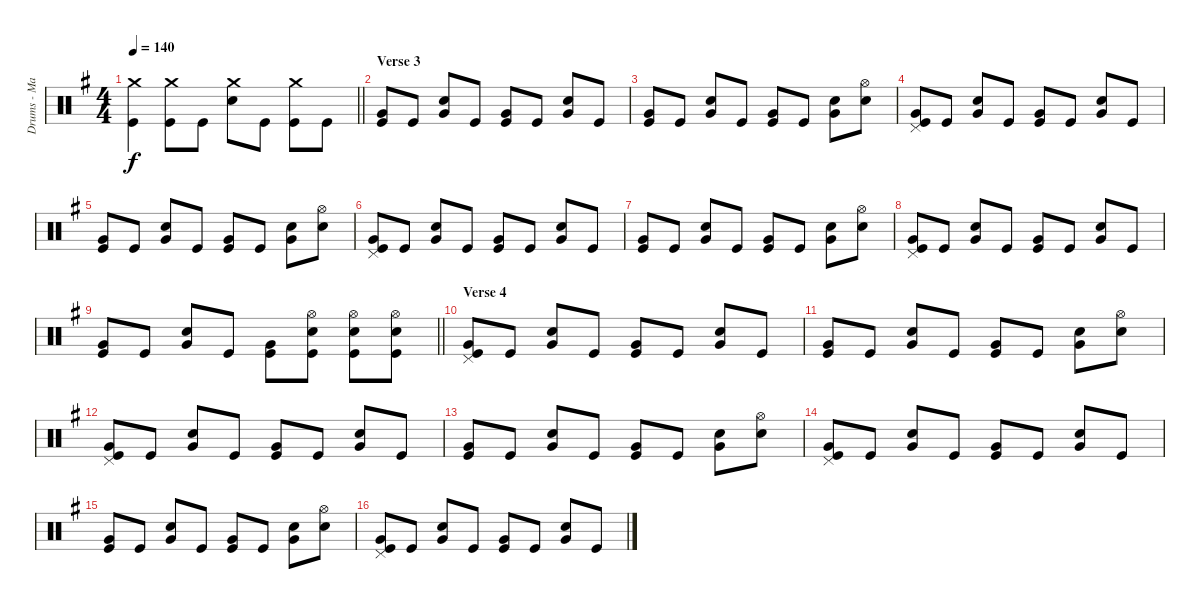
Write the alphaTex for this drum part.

\track ("Drums - Mark O'Connell" "Drums - Ma") {instrument percussion}
\staff {score}
\articulation defaults
\ts (4 4)
\tempo 140
\clef neutral
\barLineRight lightlight
\ks g
("Crash medium (hit)" "Kick (hit)").4{dy f} ("Crash medium (hit)" "Kick (hit)").8 "Kick (hit)".8 ("Crash medium (hit)" "Snare (hit) 2").8 "Kick (hit)".8 ("Crash medium (hit)" "Kick (hit)").8 "Kick (hit)".8 |
\section ("" "Verse 3")
("Very Low Tom (hit)" "Kick (hit)").8 "Kick (hit)".8 ("Very Low Tom (hit)" "Snare (hit) 2").8 "Kick (hit)".8 ("Very Low Tom (hit)" "Kick (hit)").8 "Kick (hit)".8 ("Very Low Tom (hit)" "Snare (hit) 2").8 "Kick (hit)".8 |
("Very Low Tom (hit)" "Kick (hit)").8 "Kick (hit)".8 ("Very Low Tom (hit)" "Snare (hit) 2").8 "Kick (hit)".8 ("Very Low Tom (hit)" "Kick (hit)").8 "Kick (hit)".8 ("Very Low Tom (hit)" "Snare (hit) 2").8 ("Hi-Hat (open)" "Snare (hit) 2").8 |
("Very Low Tom (hit)" "Pedal Hi-Hat (hit)" "Kick (hit)").8 "Kick (hit)".8 ("Very Low Tom (hit)" "Snare (hit) 2").8 "Kick (hit)".8 ("Very Low Tom (hit)" "Kick (hit)").8 "Kick (hit)".8 ("Very Low Tom (hit)" "Snare (hit) 2").8 "Kick (hit)".8 |
("Very Low Tom (hit)" "Kick (hit)").8 "Kick (hit)".8 ("Very Low Tom (hit)" "Snare (hit) 2").8 "Kick (hit)".8 ("Very Low Tom (hit)" "Kick (hit)").8 "Kick (hit)".8 ("Very Low Tom (hit)" "Snare (hit) 2").8 ("Hi-Hat (open)" "Snare (hit) 2").8 |
("Very Low Tom (hit)" "Pedal Hi-Hat (hit)" "Kick (hit)").8 "Kick (hit)".8 ("Very Low Tom (hit)" "Snare (hit) 2").8 "Kick (hit)".8 ("Very Low Tom (hit)" "Kick (hit)").8 "Kick (hit)".8 ("Very Low Tom (hit)" "Snare (hit) 2").8 "Kick (hit)".8 |
("Very Low Tom (hit)" "Kick (hit)").8 "Kick (hit)".8 ("Very Low Tom (hit)" "Snare (hit) 2").8 "Kick (hit)".8 ("Very Low Tom (hit)" "Kick (hit)").8 "Kick (hit)".8 ("Very Low Tom (hit)" "Snare (hit) 2").8 ("Hi-Hat (open)" "Snare (hit) 2").8 |
("Very Low Tom (hit)" "Pedal Hi-Hat (hit)" "Kick (hit)").8 "Kick (hit)".8 ("Very Low Tom (hit)" "Snare (hit) 2").8 "Kick (hit)".8 ("Very Low Tom (hit)" "Kick (hit)").8 "Kick (hit)".8 ("Very Low Tom (hit)" "Snare (hit) 2").8 "Kick (hit)".8 |
\barLineRight lightlight
("Very Low Tom (hit)" "Kick (hit)").8 "Kick (hit)".8 ("Very Low Tom (hit)" "Snare (hit) 2").8 "Kick (hit)".8 ("Very Low Tom (hit)" "Kick (hit)").8 ("Hi-Hat (open)" "Snare (hit) 2" "Kick (hit)").8 ("Hi-Hat (open)" "Snare (hit) 2" "Kick (hit)").8 ("Hi-Hat (open)" "Snare (hit) 2" "Kick (hit)").8 |
\section ("" "Verse 4")
("Very Low Tom (hit)" "Pedal Hi-Hat (hit)" "Kick (hit)").8 "Kick (hit)".8 ("Very Low Tom (hit)" "Snare (hit) 2").8 "Kick (hit)".8 ("Very Low Tom (hit)" "Kick (hit)").8 "Kick (hit)".8 ("Very Low Tom (hit)" "Snare (hit) 2").8 "Kick (hit)".8 |
("Very Low Tom (hit)" "Kick (hit)").8 "Kick (hit)".8 ("Very Low Tom (hit)" "Snare (hit) 2").8 "Kick (hit)".8 ("Very Low Tom (hit)" "Kick (hit)").8 "Kick (hit)".8 ("Very Low Tom (hit)" "Snare (hit) 2").8 ("Hi-Hat (open)" "Snare (hit) 2").8 |
("Very Low Tom (hit)" "Pedal Hi-Hat (hit)" "Kick (hit)").8 "Kick (hit)".8 ("Very Low Tom (hit)" "Snare (hit) 2").8 "Kick (hit)".8 ("Very Low Tom (hit)" "Kick (hit)").8 "Kick (hit)".8 ("Very Low Tom (hit)" "Snare (hit) 2").8 "Kick (hit)".8 |
("Very Low Tom (hit)" "Kick (hit)").8 "Kick (hit)".8 ("Very Low Tom (hit)" "Snare (hit) 2").8 "Kick (hit)".8 ("Very Low Tom (hit)" "Kick (hit)").8 "Kick (hit)".8 ("Very Low Tom (hit)" "Snare (hit) 2").8 ("Hi-Hat (open)" "Snare (hit) 2").8 |
("Very Low Tom (hit)" "Pedal Hi-Hat (hit)" "Kick (hit)").8 "Kick (hit)".8 ("Very Low Tom (hit)" "Snare (hit) 2").8 "Kick (hit)".8 ("Very Low Tom (hit)" "Kick (hit)").8 "Kick (hit)".8 ("Very Low Tom (hit)" "Snare (hit) 2").8 "Kick (hit)".8 |
("Very Low Tom (hit)" "Kick (hit)").8 "Kick (hit)".8 ("Very Low Tom (hit)" "Snare (hit) 2").8 "Kick (hit)".8 ("Very Low Tom (hit)" "Kick (hit)").8 "Kick (hit)".8 ("Very Low Tom (hit)" "Snare (hit) 2").8 ("Hi-Hat (open)" "Snare (hit) 2").8 |
("Very Low Tom (hit)" "Pedal Hi-Hat (hit)" "Kick (hit)").8 "Kick (hit)".8 ("Very Low Tom (hit)" "Snare (hit) 2").8 "Kick (hit)".8 ("Very Low Tom (hit)" "Kick (hit)").8 "Kick (hit)".8 ("Very Low Tom (hit)" "Snare (hit) 2").8 "Kick (hit)".8
